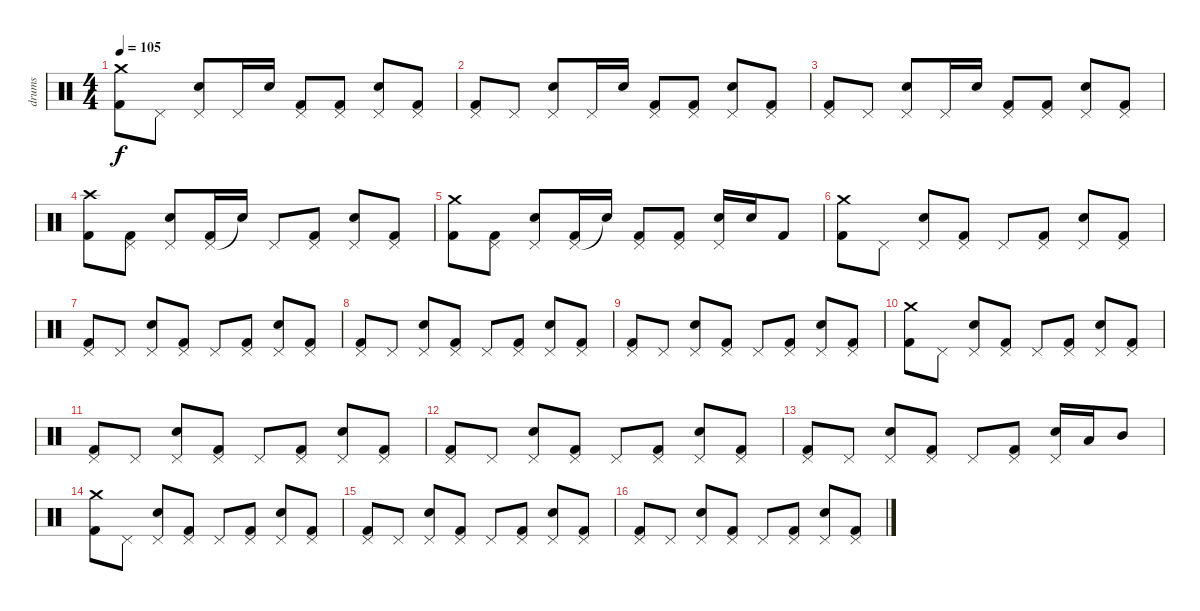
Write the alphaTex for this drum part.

\track ("drums" "drums") {instrument percussion}
\staff {score}
\articulation defaults
\ts (4 4)
\tempo 105
\clef neutral
\ks c
("Crash medium (hit)" "Kick (hit) 2").8{dy f} "Pedal Hi-Hat (hit)".8 ("Pedal Hi-Hat (hit)" "Electric Snare (hit)").8 "Pedal Hi-Hat (hit)".16 "Electric Snare (hit)".16 ("Pedal Hi-Hat (hit)" "Kick (hit) 2").8 ("Pedal Hi-Hat (hit)" "Kick (hit) 2").8 ("Pedal Hi-Hat (hit)" "Electric Snare (hit)").8 ("Pedal Hi-Hat (hit)" "Kick (hit) 2").8 |
("Pedal Hi-Hat (hit)" "Kick (hit) 2").8 "Pedal Hi-Hat (hit)".8 ("Pedal Hi-Hat (hit)" "Electric Snare (hit)").8 "Pedal Hi-Hat (hit)".16 "Electric Snare (hit)".16 ("Pedal Hi-Hat (hit)" "Kick (hit) 2").8 ("Pedal Hi-Hat (hit)" "Kick (hit) 2").8 ("Pedal Hi-Hat (hit)" "Electric Snare (hit)").8 ("Pedal Hi-Hat (hit)" "Kick (hit) 2").8 |
("Pedal Hi-Hat (hit)" "Kick (hit) 2").8 "Pedal Hi-Hat (hit)".8 ("Pedal Hi-Hat (hit)" "Electric Snare (hit)").8 "Pedal Hi-Hat (hit)".16 "Electric Snare (hit)".16 ("Pedal Hi-Hat (hit)" "Kick (hit) 2").8 ("Pedal Hi-Hat (hit)" "Kick (hit) 2").8 ("Pedal Hi-Hat (hit)" "Electric Snare (hit)").8 ("Pedal Hi-Hat (hit)" "Kick (hit) 2").8 |
("Crash high (hit)" "Kick (hit) 2").8 ("Pedal Hi-Hat (hit)" "Kick (hit) 2").8 ("Pedal Hi-Hat (hit)" "Electric Snare (hit)").8 ("Pedal Hi-Hat (hit)" "Kick (hit) 2").16 "Electric Snare (hit)"{t}.16 "Pedal Hi-Hat (hit)".8 ("Pedal Hi-Hat (hit)" "Kick (hit) 2").8 ("Pedal Hi-Hat (hit)" "Electric Snare (hit)").8 ("Pedal Hi-Hat (hit)" "Kick (hit) 2").8 |
("Crash medium (hit)" "Kick (hit) 2").8 ("Pedal Hi-Hat (hit)" "Kick (hit) 2").8 ("Pedal Hi-Hat (hit)" "Electric Snare (hit)").8 ("Pedal Hi-Hat (hit)" "Kick (hit) 2").16 "Electric Snare (hit)"{t}.16 ("Pedal Hi-Hat (hit)" "Kick (hit) 2").8 ("Pedal Hi-Hat (hit)" "Kick (hit) 2").8 ("Pedal Hi-Hat (hit)" "Electric Snare (hit)").16 "Electric Snare (hit)".16 "Kick (hit) 2".8 |
("Crash medium (hit)" "Kick (hit) 2").8 "Pedal Hi-Hat (hit)".8 ("Pedal Hi-Hat (hit)" "Electric Snare (hit)").8 ("Pedal Hi-Hat (hit)" "Kick (hit) 2").8 "Pedal Hi-Hat (hit)".8 ("Pedal Hi-Hat (hit)" "Kick (hit) 2").8 ("Pedal Hi-Hat (hit)" "Electric Snare (hit)").8 ("Pedal Hi-Hat (hit)" "Kick (hit) 2").8 |
("Pedal Hi-Hat (hit)" "Kick (hit) 2").8 "Pedal Hi-Hat (hit)".8 ("Pedal Hi-Hat (hit)" "Electric Snare (hit)").8 ("Pedal Hi-Hat (hit)" "Kick (hit) 2").8 "Pedal Hi-Hat (hit)".8 ("Pedal Hi-Hat (hit)" "Kick (hit) 2").8 ("Pedal Hi-Hat (hit)" "Electric Snare (hit)").8 ("Pedal Hi-Hat (hit)" "Kick (hit) 2").8 |
("Pedal Hi-Hat (hit)" "Kick (hit) 2").8 "Pedal Hi-Hat (hit)".8 ("Pedal Hi-Hat (hit)" "Electric Snare (hit)").8 ("Pedal Hi-Hat (hit)" "Kick (hit) 2").8 "Pedal Hi-Hat (hit)".8 ("Pedal Hi-Hat (hit)" "Kick (hit) 2").8 ("Pedal Hi-Hat (hit)" "Electric Snare (hit)").8 ("Pedal Hi-Hat (hit)" "Kick (hit) 2").8 |
("Pedal Hi-Hat (hit)" "Kick (hit) 2").8 "Pedal Hi-Hat (hit)".8 ("Pedal Hi-Hat (hit)" "Electric Snare (hit)").8 ("Pedal Hi-Hat (hit)" "Kick (hit) 2").8 "Pedal Hi-Hat (hit)".8 ("Pedal Hi-Hat (hit)" "Kick (hit) 2").8 ("Pedal Hi-Hat (hit)" "Electric Snare (hit)").8 ("Pedal Hi-Hat (hit)" "Kick (hit) 2").8 |
("Crash medium (hit)" "Kick (hit) 2").8 "Pedal Hi-Hat (hit)".8 ("Pedal Hi-Hat (hit)" "Electric Snare (hit)").8 ("Pedal Hi-Hat (hit)" "Kick (hit) 2").8 "Pedal Hi-Hat (hit)".8 ("Pedal Hi-Hat (hit)" "Kick (hit) 2").8 ("Pedal Hi-Hat (hit)" "Electric Snare (hit)").8 ("Pedal Hi-Hat (hit)" "Kick (hit) 2").8 |
("Pedal Hi-Hat (hit)" "Kick (hit) 2").8 "Pedal Hi-Hat (hit)".8 ("Pedal Hi-Hat (hit)" "Electric Snare (hit)").8 ("Pedal Hi-Hat (hit)" "Kick (hit) 2").8 "Pedal Hi-Hat (hit)".8 ("Pedal Hi-Hat (hit)" "Kick (hit) 2").8 ("Pedal Hi-Hat (hit)" "Electric Snare (hit)").8 ("Pedal Hi-Hat (hit)" "Kick (hit) 2").8 |
("Pedal Hi-Hat (hit)" "Kick (hit) 2").8 "Pedal Hi-Hat (hit)".8 ("Pedal Hi-Hat (hit)" "Electric Snare (hit)").8 ("Pedal Hi-Hat (hit)" "Kick (hit) 2").8 "Pedal Hi-Hat (hit)".8 ("Pedal Hi-Hat (hit)" "Kick (hit) 2").8 ("Pedal Hi-Hat (hit)" "Electric Snare (hit)").8 ("Pedal Hi-Hat (hit)" "Kick (hit) 2").8 |
("Pedal Hi-Hat (hit)" "Kick (hit) 2").8 "Pedal Hi-Hat (hit)".8 ("Pedal Hi-Hat (hit)" "Electric Snare (hit)").8 ("Pedal Hi-Hat (hit)" "Kick (hit) 2").8 "Pedal Hi-Hat (hit)".8 ("Pedal Hi-Hat (hit)" "Kick (hit) 2").8 ("Pedal Hi-Hat (hit)" "Electric Snare (hit)").16 "Low Tom (hit)".16 "Mid Tom (hit)".8 |
("Crash medium (hit)" "Kick (hit) 2").8 "Pedal Hi-Hat (hit)".8 ("Pedal Hi-Hat (hit)" "Electric Snare (hit)").8 ("Pedal Hi-Hat (hit)" "Kick (hit) 2").8 "Pedal Hi-Hat (hit)".8 ("Pedal Hi-Hat (hit)" "Kick (hit) 2").8 ("Pedal Hi-Hat (hit)" "Electric Snare (hit)").8 ("Pedal Hi-Hat (hit)" "Kick (hit) 2").8 |
("Pedal Hi-Hat (hit)" "Kick (hit) 2").8 "Pedal Hi-Hat (hit)".8 ("Pedal Hi-Hat (hit)" "Electric Snare (hit)").8 ("Pedal Hi-Hat (hit)" "Kick (hit) 2").8 "Pedal Hi-Hat (hit)".8 ("Pedal Hi-Hat (hit)" "Kick (hit) 2").8 ("Pedal Hi-Hat (hit)" "Electric Snare (hit)").8 ("Pedal Hi-Hat (hit)" "Kick (hit) 2").8 |
("Pedal Hi-Hat (hit)" "Kick (hit) 2").8 "Pedal Hi-Hat (hit)".8 ("Pedal Hi-Hat (hit)" "Electric Snare (hit)").8 ("Pedal Hi-Hat (hit)" "Kick (hit) 2").8 "Pedal Hi-Hat (hit)".8 ("Pedal Hi-Hat (hit)" "Kick (hit) 2").8 ("Pedal Hi-Hat (hit)" "Electric Snare (hit)").8 ("Pedal Hi-Hat (hit)" "Kick (hit) 2").8
